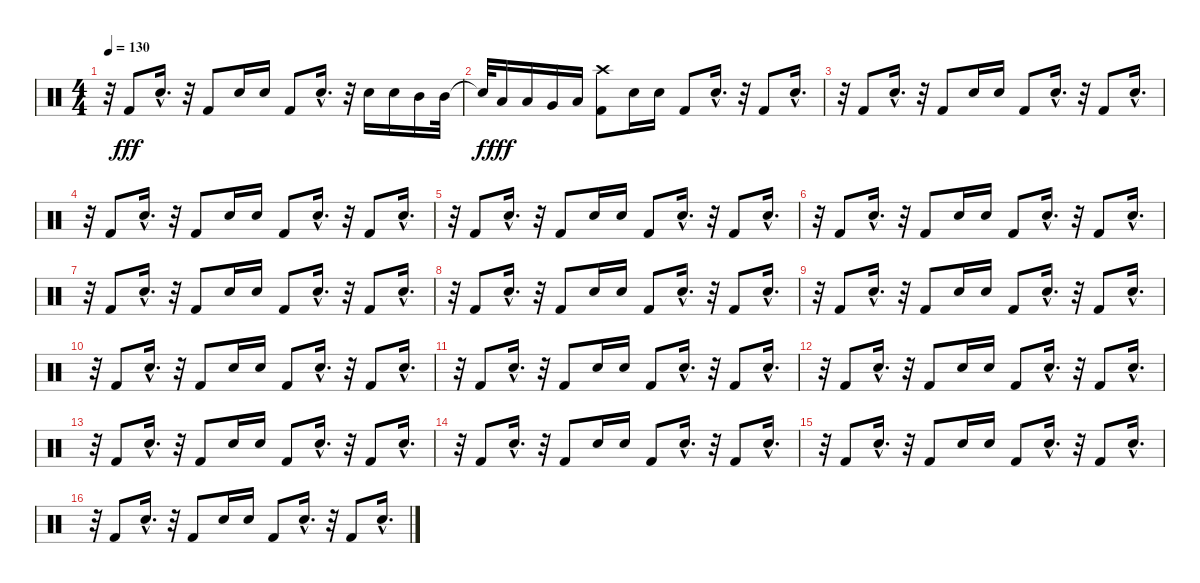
\track "" {instrument percussion}
\staff {score}
\articulation defaults
\ts (4 4)
\tempo 130
\clef neutral
\ks c
r.32{dy fff} "Kick (hit) 2".8 "Electric Snare (hit)"{hac}.16{d} r.32 "Kick (hit) 2".8 "Electric Snare (hit)".16 "Electric Snare (hit)".16 "Kick (hit) 2".8 "Electric Snare (hit)"{hac}.16{d} r.32 "Electric Snare (hit)".16 "Electric Snare (hit)".16 "Mid Tom (hit)".16 "Mid Tom (hit)".32 |
"Snare (hit)"{t}.32{dy f} "Low Tom (hit)".16{dy fff} "Low Tom (hit)".16 "Very Low Tom (hit)".16 "Low Floor Tom (hit)".16 ("Crash high (hit)" "Kick (hit) 2").8 "Electric Snare (hit)".16 "Electric Snare (hit)".16 "Kick (hit) 2".8 "Electric Snare (hit)"{hac}.16{d} r.32 "Kick (hit) 2".8 "Electric Snare (hit)"{hac}.16{d} |
r.32 "Kick (hit) 2".8 "Electric Snare (hit)"{hac}.16{d} r.32 "Kick (hit) 2".8 "Electric Snare (hit)".16 "Electric Snare (hit)".16 "Kick (hit) 2".8 "Electric Snare (hit)"{hac}.16{d} r.32 "Kick (hit) 2".8 "Electric Snare (hit)"{hac}.16{d} |
r.32 "Kick (hit) 2".8 "Electric Snare (hit)"{hac}.16{d} r.32 "Kick (hit) 2".8 "Electric Snare (hit)".16 "Electric Snare (hit)".16 "Kick (hit) 2".8 "Electric Snare (hit)"{hac}.16{d} r.32 "Kick (hit) 2".8 "Electric Snare (hit)"{hac}.16{d} |
r.32 "Kick (hit) 2".8 "Electric Snare (hit)"{hac}.16{d} r.32 "Kick (hit) 2".8 "Electric Snare (hit)".16 "Electric Snare (hit)".16 "Kick (hit) 2".8 "Electric Snare (hit)"{hac}.16{d} r.32 "Kick (hit) 2".8 "Electric Snare (hit)"{hac}.16{d} |
r.32 "Kick (hit) 2".8 "Electric Snare (hit)"{hac}.16{d} r.32 "Kick (hit) 2".8 "Electric Snare (hit)".16 "Electric Snare (hit)".16 "Kick (hit) 2".8 "Electric Snare (hit)"{hac}.16{d} r.32 "Kick (hit) 2".8 "Electric Snare (hit)"{hac}.16{d} |
r.32 "Kick (hit) 2".8 "Electric Snare (hit)"{hac}.16{d} r.32 "Kick (hit) 2".8 "Electric Snare (hit)".16 "Electric Snare (hit)".16 "Kick (hit) 2".8 "Electric Snare (hit)"{hac}.16{d} r.32 "Kick (hit) 2".8 "Electric Snare (hit)"{hac}.16{d} |
r.32 "Kick (hit) 2".8 "Electric Snare (hit)"{hac}.16{d} r.32 "Kick (hit) 2".8 "Electric Snare (hit)".16 "Electric Snare (hit)".16 "Kick (hit) 2".8 "Electric Snare (hit)"{hac}.16{d} r.32 "Kick (hit) 2".8 "Electric Snare (hit)"{hac}.16{d} |
r.32 "Kick (hit) 2".8 "Electric Snare (hit)"{hac}.16{d} r.32 "Kick (hit) 2".8 "Electric Snare (hit)".16 "Electric Snare (hit)".16 "Kick (hit) 2".8 "Electric Snare (hit)"{hac}.16{d} r.32 "Kick (hit) 2".8 "Electric Snare (hit)"{hac}.16{d} |
r.32 "Kick (hit) 2".8 "Electric Snare (hit)"{hac}.16{d} r.32 "Kick (hit) 2".8 "Electric Snare (hit)".16 "Electric Snare (hit)".16 "Kick (hit) 2".8 "Electric Snare (hit)"{hac}.16{d} r.32 "Kick (hit) 2".8 "Electric Snare (hit)"{hac}.16{d} |
r.32 "Kick (hit) 2".8 "Electric Snare (hit)"{hac}.16{d} r.32 "Kick (hit) 2".8 "Electric Snare (hit)".16 "Electric Snare (hit)".16 "Kick (hit) 2".8 "Electric Snare (hit)"{hac}.16{d} r.32 "Kick (hit) 2".8 "Electric Snare (hit)"{hac}.16{d} |
r.32 "Kick (hit) 2".8 "Electric Snare (hit)"{hac}.16{d} r.32 "Kick (hit) 2".8 "Electric Snare (hit)".16 "Electric Snare (hit)".16 "Kick (hit) 2".8 "Electric Snare (hit)"{hac}.16{d} r.32 "Kick (hit) 2".8 "Electric Snare (hit)"{hac}.16{d} |
r.32 "Kick (hit) 2".8 "Electric Snare (hit)"{hac}.16{d} r.32 "Kick (hit) 2".8 "Electric Snare (hit)".16 "Electric Snare (hit)".16 "Kick (hit) 2".8 "Electric Snare (hit)"{hac}.16{d} r.32 "Kick (hit) 2".8 "Electric Snare (hit)"{hac}.16{d} |
r.32 "Kick (hit) 2".8 "Electric Snare (hit)"{hac}.16{d} r.32 "Kick (hit) 2".8 "Electric Snare (hit)".16 "Electric Snare (hit)".16 "Kick (hit) 2".8 "Electric Snare (hit)"{hac}.16{d} r.32 "Kick (hit) 2".8 "Electric Snare (hit)"{hac}.16{d} |
r.32 "Kick (hit) 2".8 "Electric Snare (hit)"{hac}.16{d} r.32 "Kick (hit) 2".8 "Electric Snare (hit)".16 "Electric Snare (hit)".16 "Kick (hit) 2".8 "Electric Snare (hit)"{hac}.16{d} r.32 "Kick (hit) 2".8 "Electric Snare (hit)"{hac}.16{d} |
r.32 "Kick (hit) 2".8 "Electric Snare (hit)"{hac}.16{d} r.32 "Kick (hit) 2".8 "Electric Snare (hit)".16 "Electric Snare (hit)".16 "Kick (hit) 2".8 "Electric Snare (hit)"{hac}.16{d} r.32 "Kick (hit) 2".8 "Electric Snare (hit)"{hac}.16{d}
